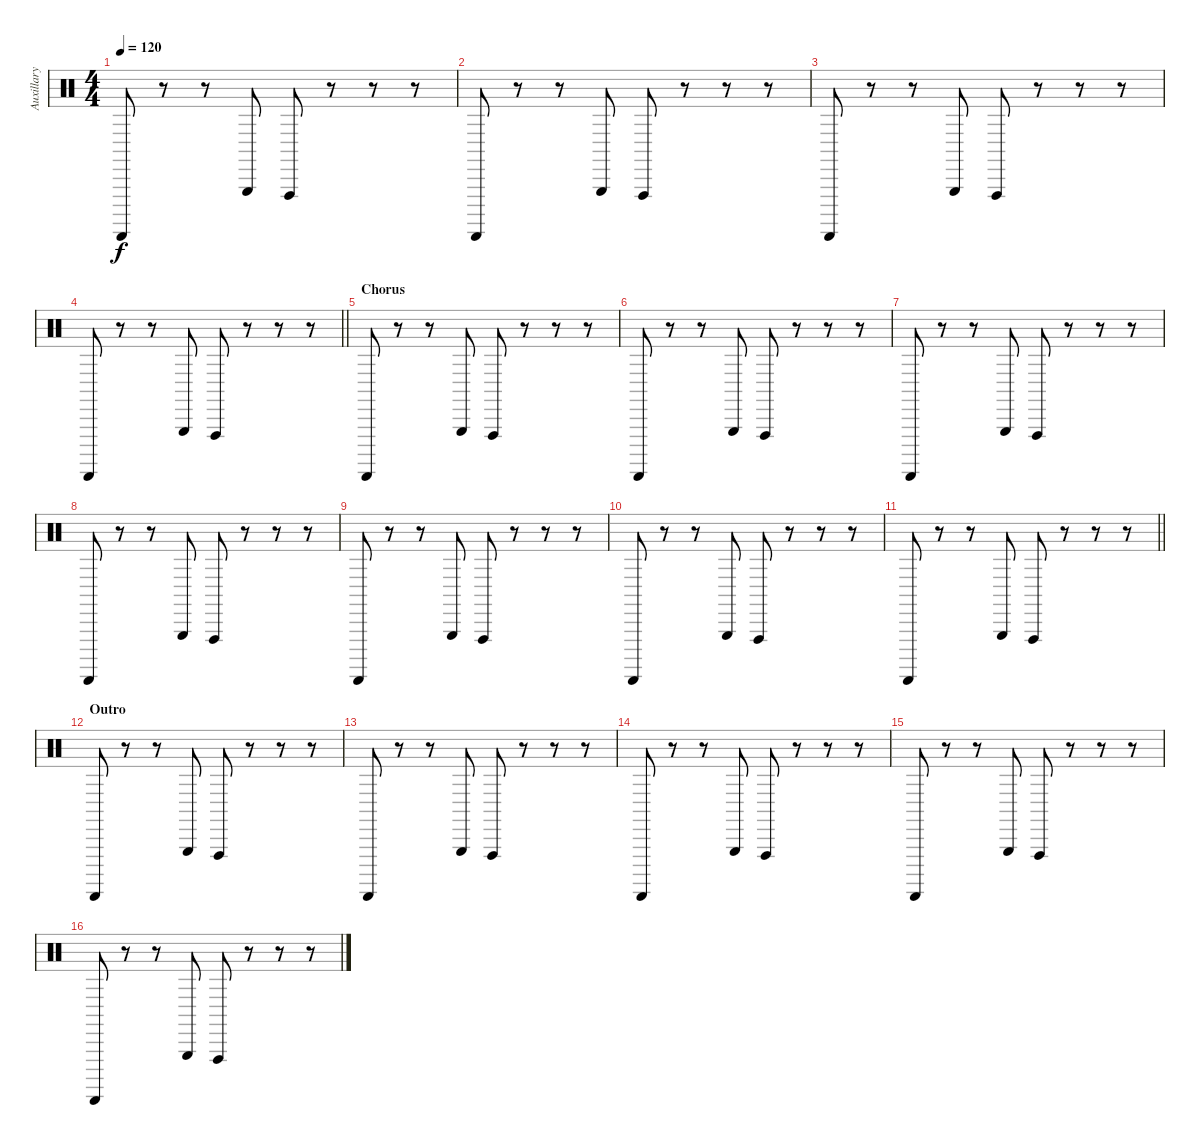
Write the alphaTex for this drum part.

\track ("Auxillary 2" "Auxillary ") {instrument percussion}
\staff {score}
\articulation defaults
\ts (4 4)
\tempo 120
\clef neutral
\ks c "Guiro (scrap-return)".8{dy f}
r.8 r.8 "Triangle (hit)".8 "Vibraslap (hit)".8 r.8 r.8 r.8 |
"Guiro (scrap-return)".8 r.8 r.8 "Triangle (hit)".8 "Vibraslap (hit)".8 r.8 r.8 r.8 |
"Guiro (scrap-return)".8 r.8 r.8 "Triangle (hit)".8 "Vibraslap (hit)".8 r.8 r.8 r.8 |
\barLineRight lightlight "Guiro (scrap-return)".8
r.8 r.8 "Triangle (hit)".8 "Vibraslap (hit)".8 r.8 r.8 r.8 |
\section ("" "Chorus")
"Guiro (scrap-return)".8 r.8 r.8 "Triangle (hit)".8 "Vibraslap (hit)".8 r.8 r.8 r.8 |
"Guiro (scrap-return)".8 r.8 r.8 "Triangle (hit)".8 "Vibraslap (hit)".8 r.8 r.8 r.8 |
"Guiro (scrap-return)".8 r.8 r.8 "Triangle (hit)".8 "Vibraslap (hit)".8 r.8 r.8 r.8 |
"Guiro (scrap-return)".8 r.8 r.8 "Triangle (hit)".8 "Vibraslap (hit)".8 r.8 r.8 r.8 |
"Guiro (scrap-return)".8 r.8 r.8 "Triangle (hit)".8 "Vibraslap (hit)".8 r.8 r.8 r.8 |
"Guiro (scrap-return)".8 r.8 r.8 "Triangle (hit)".8 "Vibraslap (hit)".8 r.8 r.8 r.8 |
\barLineRight lightlight "Guiro (scrap-return)".8
r.8 r.8 "Triangle (hit)".8 "Vibraslap (hit)".8 r.8 r.8 r.8 |
\section ("" "Outro")
"Guiro (scrap-return)".8 r.8 r.8 "Triangle (hit)".8 "Vibraslap (hit)".8 r.8 r.8 r.8 |
"Guiro (scrap-return)".8 r.8 r.8 "Triangle (hit)".8 "Vibraslap (hit)".8 r.8 r.8 r.8 |
"Guiro (scrap-return)".8 r.8 r.8 "Triangle (hit)".8 "Vibraslap (hit)".8 r.8 r.8 r.8 |
"Guiro (scrap-return)".8 r.8 r.8 "Triangle (hit)".8 "Vibraslap (hit)".8 r.8 r.8 r.8 |
"Guiro (scrap-return)".8 r.8 r.8 "Triangle (hit)".8 "Vibraslap (hit)".8 r.8 r.8 r.8
